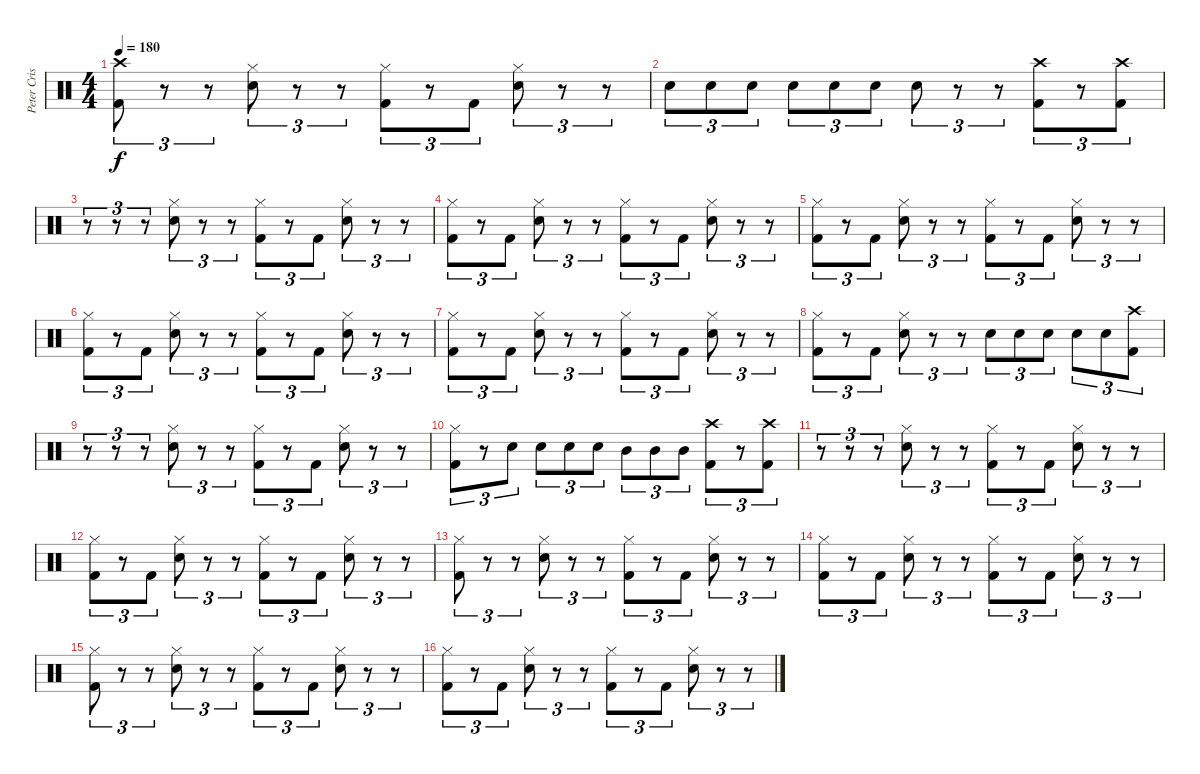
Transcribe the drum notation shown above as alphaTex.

\track ("Peter Criss" "Peter Cris") {instrument percussion}
\staff {score}
\articulation defaults
\ts (4 4)
\tempo 180
\clef neutral
\ks c
("Crash high (hit)" "Kick (hit) 2").8{tu (3 2) dy f} r.8{tu (3 2)} r.8{tu (3 2)} ("Hi-Hat (closed)" "Electric Snare (hit)").8{tu (3 2)} r.8{tu (3 2)} r.8{tu (3 2)} ("Hi-Hat (closed)" "Kick (hit) 2").8{tu (3 2)} r.8{tu (3 2)} "Kick (hit) 2".8{tu (3 2)} ("Hi-Hat (closed)" "Electric Snare (hit)").8{tu (3 2)} r.8{tu (3 2)} r.8{tu (3 2)} |
"Electric Snare (hit)".8{tu (3 2)} "Electric Snare (hit)".8{tu (3 2)} "Electric Snare (hit)".8{tu (3 2)} "Electric Snare (hit)".8{tu (3 2)} "Electric Snare (hit)".8{tu (3 2)} "Electric Snare (hit)".8{tu (3 2)} "Electric Snare (hit)".8{tu (3 2)} r.8{tu (3 2)} r.8{tu (3 2)} ("Crash high (hit)" "Kick (hit) 2").8{tu (3 2)} r.8{tu (3 2)} ("Crash high (hit)" "Kick (hit) 2").8{tu (3 2)} |
r.8{tu (3 2)} r.8{tu (3 2)} r.8{tu (3 2)} ("Hi-Hat (closed)" "Electric Snare (hit)").8{tu (3 2)} r.8{tu (3 2)} r.8{tu (3 2)} ("Hi-Hat (closed)" "Kick (hit) 2").8{tu (3 2)} r.8{tu (3 2)} "Kick (hit) 2".8{tu (3 2)} ("Hi-Hat (closed)" "Electric Snare (hit)").8{tu (3 2)} r.8{tu (3 2)} r.8{tu (3 2)} |
("Hi-Hat (closed)" "Kick (hit) 2").8{tu (3 2)} r.8{tu (3 2)} "Kick (hit) 2".8{tu (3 2)} ("Hi-Hat (closed)" "Electric Snare (hit)").8{tu (3 2)} r.8{tu (3 2)} r.8{tu (3 2)} ("Hi-Hat (closed)" "Kick (hit) 2").8{tu (3 2)} r.8{tu (3 2)} "Kick (hit) 2".8{tu (3 2)} ("Hi-Hat (closed)" "Electric Snare (hit)").8{tu (3 2)} r.8{tu (3 2)} r.8{tu (3 2)} |
("Hi-Hat (closed)" "Kick (hit) 2").8{tu (3 2)} r.8{tu (3 2)} "Kick (hit) 2".8{tu (3 2)} ("Hi-Hat (closed)" "Electric Snare (hit)").8{tu (3 2)} r.8{tu (3 2)} r.8{tu (3 2)} ("Hi-Hat (closed)" "Kick (hit) 2").8{tu (3 2)} r.8{tu (3 2)} "Kick (hit) 2".8{tu (3 2)} ("Hi-Hat (closed)" "Electric Snare (hit)").8{tu (3 2)} r.8{tu (3 2)} r.8{tu (3 2)} |
("Hi-Hat (closed)" "Kick (hit) 2").8{tu (3 2)} r.8{tu (3 2)} "Kick (hit) 2".8{tu (3 2)} ("Hi-Hat (closed)" "Electric Snare (hit)").8{tu (3 2)} r.8{tu (3 2)} r.8{tu (3 2)} ("Hi-Hat (closed)" "Kick (hit) 2").8{tu (3 2)} r.8{tu (3 2)} "Kick (hit) 2".8{tu (3 2)} ("Hi-Hat (closed)" "Electric Snare (hit)").8{tu (3 2)} r.8{tu (3 2)} r.8{tu (3 2)} |
("Hi-Hat (closed)" "Kick (hit) 2").8{tu (3 2)} r.8{tu (3 2)} "Kick (hit) 2".8{tu (3 2)} ("Hi-Hat (closed)" "Electric Snare (hit)").8{tu (3 2)} r.8{tu (3 2)} r.8{tu (3 2)} ("Hi-Hat (closed)" "Kick (hit) 2").8{tu (3 2)} r.8{tu (3 2)} "Kick (hit) 2".8{tu (3 2)} ("Hi-Hat (closed)" "Electric Snare (hit)").8{tu (3 2)} r.8{tu (3 2)} r.8{tu (3 2)} |
("Hi-Hat (closed)" "Kick (hit) 2").8{tu (3 2)} r.8{tu (3 2)} "Kick (hit) 2".8{tu (3 2)} ("Hi-Hat (closed)" "Electric Snare (hit)").8{tu (3 2)} r.8{tu (3 2)} r.8{tu (3 2)} "Electric Snare (hit)".8{tu (3 2)} "Electric Snare (hit)".8{tu (3 2)} "Electric Snare (hit)".8{tu (3 2)} "Electric Snare (hit)".8{tu (3 2)} "Electric Snare (hit)".8{tu (3 2)} ("Crash high (hit)" "Kick (hit) 2").8{tu (3 2)} |
r.8{tu (3 2)} r.8{tu (3 2)} r.8{tu (3 2)} ("Hi-Hat (closed)" "Electric Snare (hit)").8{tu (3 2)} r.8{tu (3 2)} r.8{tu (3 2)} ("Hi-Hat (closed)" "Kick (hit) 2").8{tu (3 2)} r.8{tu (3 2)} "Kick (hit) 2".8{tu (3 2)} ("Hi-Hat (closed)" "Electric Snare (hit)").8{tu (3 2)} r.8{tu (3 2)} r.8{tu (3 2)} |
("Hi-Hat (closed)" "Kick (hit) 2").8{tu (3 2)} r.8{tu (3 2)} "Electric Snare (hit)".8{tu (3 2)} "Electric Snare (hit)".8{tu (3 2)} "Electric Snare (hit)".8{tu (3 2)} "Electric Snare (hit)".8{tu (3 2)} "Mid Tom (hit)".8{tu (3 2)} "Mid Tom (hit)".8{tu (3 2)} "Mid Tom (hit)".8{tu (3 2)} ("Crash high (hit)" "Kick (hit) 2").8{tu (3 2)} r.8{tu (3 2)} ("Crash high (hit)" "Kick (hit) 2").8{tu (3 2)} |
r.8{tu (3 2)} r.8{tu (3 2)} r.8{tu (3 2)} ("Hi-Hat (closed)" "Electric Snare (hit)").8{tu (3 2)} r.8{tu (3 2)} r.8{tu (3 2)} ("Hi-Hat (closed)" "Kick (hit) 2").8{tu (3 2)} r.8{tu (3 2)} "Kick (hit) 2".8{tu (3 2)} ("Hi-Hat (closed)" "Electric Snare (hit)").8{tu (3 2)} r.8{tu (3 2)} r.8{tu (3 2)} |
("Hi-Hat (closed)" "Kick (hit) 2").8{tu (3 2)} r.8{tu (3 2)} "Kick (hit) 2".8{tu (3 2)} ("Hi-Hat (closed)" "Electric Snare (hit)").8{tu (3 2)} r.8{tu (3 2)} r.8{tu (3 2)} ("Hi-Hat (closed)" "Kick (hit) 2").8{tu (3 2)} r.8{tu (3 2)} "Kick (hit) 2".8{tu (3 2)} ("Hi-Hat (closed)" "Electric Snare (hit)").8{tu (3 2)} r.8{tu (3 2)} r.8{tu (3 2)} |
("Hi-Hat (closed)" "Kick (hit) 2").8{tu (3 2)} r.8{tu (3 2)} r.8{tu (3 2)} ("Hi-Hat (closed)" "Electric Snare (hit)").8{tu (3 2)} r.8{tu (3 2)} r.8{tu (3 2)} ("Hi-Hat (closed)" "Kick (hit) 2").8{tu (3 2)} r.8{tu (3 2)} "Kick (hit) 2".8{tu (3 2)} ("Hi-Hat (closed)" "Electric Snare (hit)").8{tu (3 2)} r.8{tu (3 2)} r.8{tu (3 2)} |
("Hi-Hat (closed)" "Kick (hit) 2").8{tu (3 2)} r.8{tu (3 2)} "Kick (hit) 2".8{tu (3 2)} ("Hi-Hat (closed)" "Electric Snare (hit)").8{tu (3 2)} r.8{tu (3 2)} r.8{tu (3 2)} ("Hi-Hat (closed)" "Kick (hit) 2").8{tu (3 2)} r.8{tu (3 2)} "Kick (hit) 2".8{tu (3 2)} ("Hi-Hat (closed)" "Electric Snare (hit)").8{tu (3 2)} r.8{tu (3 2)} r.8{tu (3 2)} |
("Hi-Hat (closed)" "Kick (hit) 2").8{tu (3 2)} r.8{tu (3 2)} r.8{tu (3 2)} ("Hi-Hat (closed)" "Electric Snare (hit)").8{tu (3 2)} r.8{tu (3 2)} r.8{tu (3 2)} ("Hi-Hat (closed)" "Kick (hit) 2").8{tu (3 2)} r.8{tu (3 2)} "Kick (hit) 2".8{tu (3 2)} ("Hi-Hat (closed)" "Electric Snare (hit)").8{tu (3 2)} r.8{tu (3 2)} r.8{tu (3 2)} |
("Hi-Hat (closed)" "Kick (hit) 2").8{tu (3 2)} r.8{tu (3 2)} "Kick (hit) 2".8{tu (3 2)} ("Hi-Hat (closed)" "Electric Snare (hit)").8{tu (3 2)} r.8{tu (3 2)} r.8{tu (3 2)} ("Hi-Hat (closed)" "Kick (hit) 2").8{tu (3 2)} r.8{tu (3 2)} "Kick (hit) 2".8{tu (3 2)} ("Hi-Hat (closed)" "Electric Snare (hit)").8{tu (3 2)} r.8{tu (3 2)} r.8{tu (3 2)}
